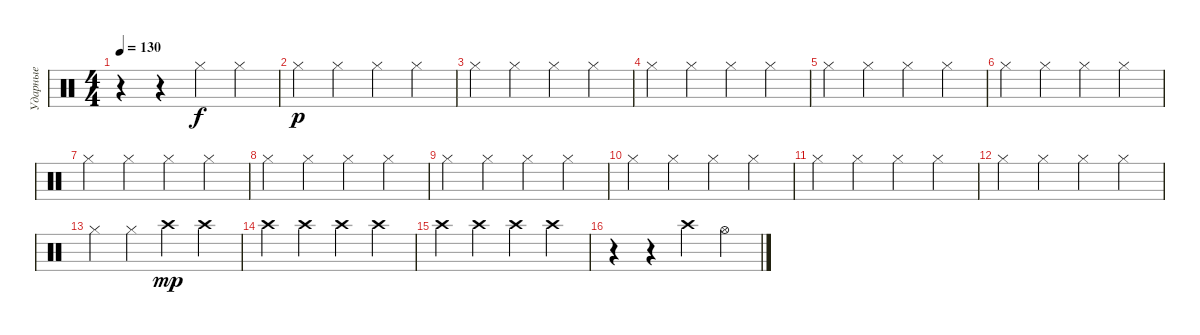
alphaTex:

\track ("Ударные" "Ударные") {instrument percussion}
\staff {score}
\articulation defaults
\ts (4 4)
\tempo 130
\clef neutral
\ks c
r.4{dy p} r.4 "Hi-Hat (closed)".4{dy f} "Hi-Hat (closed)".4 |
"Hi-Hat (closed)".4{dy p} "Hi-Hat (closed)".4 "Hi-Hat (closed)".4 "Hi-Hat (closed)".4 |
"Hi-Hat (closed)".4 "Hi-Hat (closed)".4 "Hi-Hat (closed)".4 "Hi-Hat (closed)".4 |
"Hi-Hat (closed)".4 "Hi-Hat (closed)".4 "Hi-Hat (closed)".4 "Hi-Hat (closed)".4 |
"Hi-Hat (closed)".4 "Hi-Hat (closed)".4 "Hi-Hat (closed)".4 "Hi-Hat (closed)".4 |
"Hi-Hat (closed)".4 "Hi-Hat (closed)".4 "Hi-Hat (closed)".4 "Hi-Hat (closed)".4 |
"Hi-Hat (closed)".4 "Hi-Hat (closed)".4 "Hi-Hat (closed)".4 "Hi-Hat (closed)".4 |
"Hi-Hat (closed)".4 "Hi-Hat (closed)".4 "Hi-Hat (closed)".4 "Hi-Hat (closed)".4 |
"Hi-Hat (closed)".4 "Hi-Hat (closed)".4 "Hi-Hat (closed)".4 "Hi-Hat (closed)".4 |
"Hi-Hat (closed)".4 "Hi-Hat (closed)".4 "Hi-Hat (closed)".4 "Hi-Hat (closed)".4 |
"Hi-Hat (closed)".4 "Hi-Hat (closed)".4 "Hi-Hat (closed)".4 "Hi-Hat (closed)".4 |
"Hi-Hat (closed)".4 "Hi-Hat (closed)".4 "Hi-Hat (closed)".4 "Hi-Hat (closed)".4 |
"Hi-Hat (closed)".4 "Hi-Hat (closed)".4 "Crash high (hit)".4{dy mp} "Crash high (hit)".4 |
"Crash high (hit)".4 "Crash high (hit)".4 "Crash high (hit)".4 "Crash high (hit)".4 |
"Crash high (hit)".4 "Crash high (hit)".4 "Crash high (hit)".4 "Crash high (hit)".4 |
r.4 r.4 "Crash high (hit)".4 "Hi-Hat (open)".4
